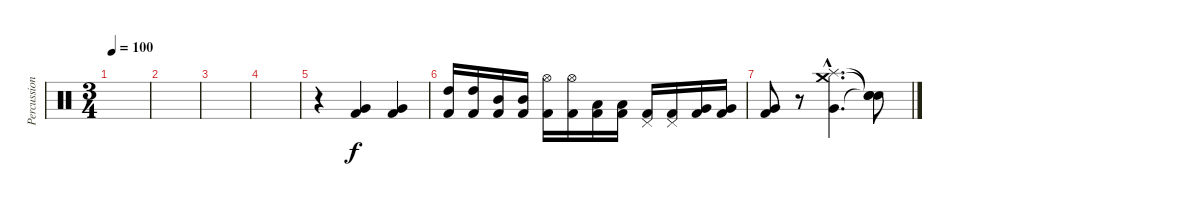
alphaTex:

\track ("Percussions" "Percussion") {instrument percussion}
\staff {score}
\articulation defaults
\ts (3 4)
\tempo 100
\clef neutral
\ks c
|
|
|
|
r.4 ("Very Low Tom (hit)" "Kick (hit) 2").4 ("Very Low Tom (hit)" "Kick (hit) 2").4 |
("High Tom (hit)" "Kick (hit) 2").16 ("High Tom (hit)" "Kick (hit) 2").16 ("Mid Tom (hit)" "Kick (hit) 2").16 ("Mid Tom (hit)" "Kick (hit) 2").16 ("Hi-Hat (open)" "Kick (hit) 2").16 ("Hi-Hat (open)" "Kick (hit) 2").16 ("Low Tom (hit)" "Kick (hit) 2").16 ("Low Tom (hit)" "Kick (hit) 2").16 ("Pedal Hi-Hat (hit)" "Kick (hit) 2").16 ("Pedal Hi-Hat (hit)" "Kick (hit) 2").16 ("Very Low Tom (hit)" "Kick (hit) 2").16 ("Very Low Tom (hit)" "Kick (hit) 2").16 |
("Very Low Tom (hit)" "Kick (hit) 2").8 r.8 ("Crash medium (hit)"{hac} "Splash (hit)"{hac} "Very Low Tom (hit)"{hac}).4{d} ("Snare (hit)"{t} "Snare (hit)"{t} "Snare (hit)"{t}).8
